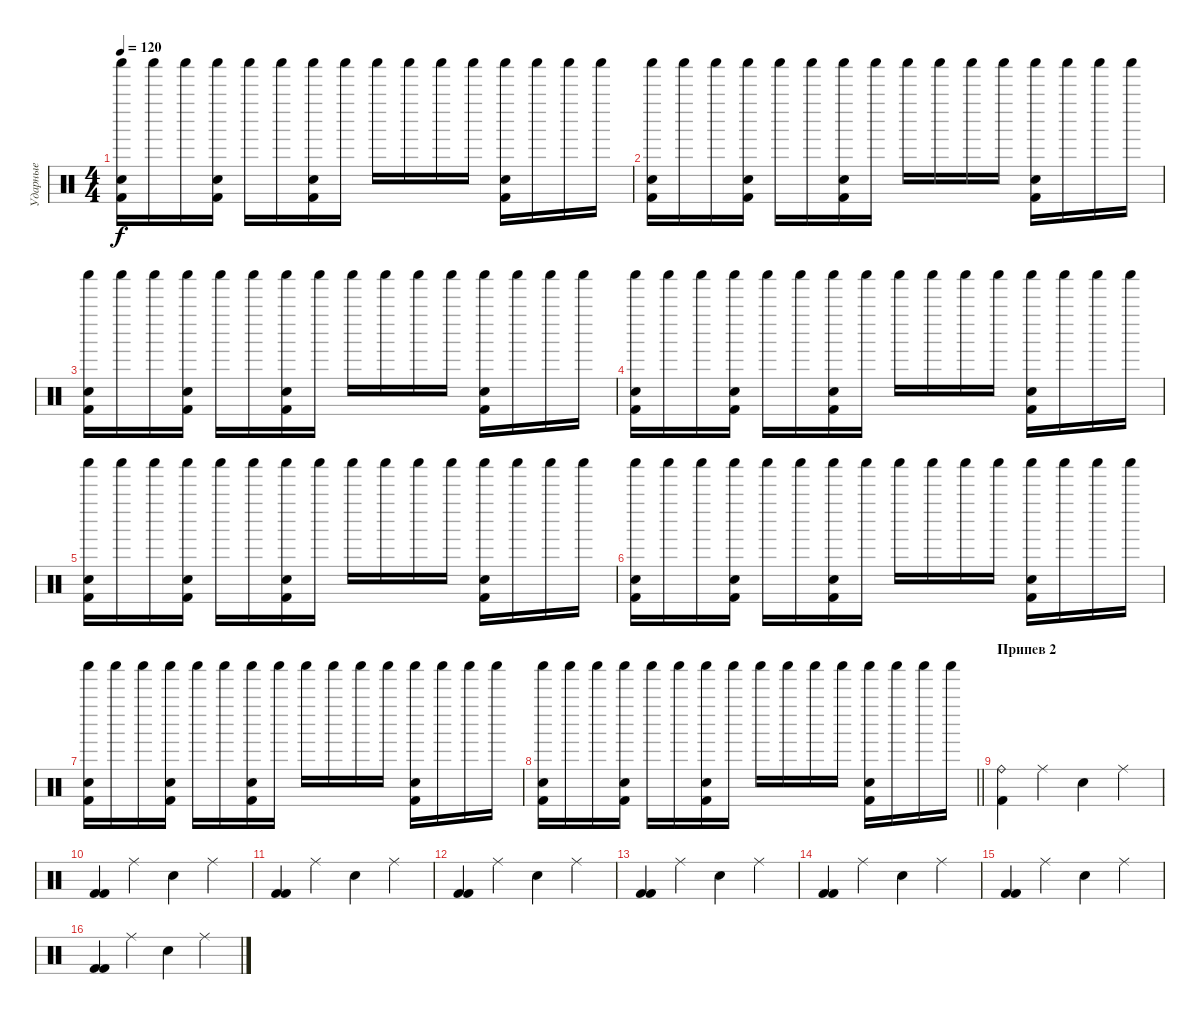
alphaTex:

\track ("Ударные" "Ударные") {instrument percussion}
\staff {score}
\articulation defaults
\ts (4 4)
\tempo 120
\clef neutral
\ks c
("Electric Snare (hit)" "Kick (hit) 2" "Shaker (hit)").16{dy f} "Shaker (hit)".16 "Shaker (hit)".16 ("Electric Snare (hit)" "Kick (hit) 2" "Shaker (hit)").16 "Shaker (hit)".16 "Shaker (hit)".16 ("Electric Snare (hit)" "Kick (hit) 2" "Shaker (hit)").16 "Shaker (hit)".16 "Shaker (hit)".16 "Shaker (hit)".16 "Shaker (hit)".16 "Shaker (hit)".16 ("Electric Snare (hit)" "Kick (hit) 2" "Shaker (hit)").16 "Shaker (hit)".16 "Shaker (hit)".16 "Shaker (hit)".16 |
("Electric Snare (hit)" "Kick (hit) 2" "Shaker (hit)").16 "Shaker (hit)".16 "Shaker (hit)".16 ("Electric Snare (hit)" "Kick (hit) 2" "Shaker (hit)").16 "Shaker (hit)".16 "Shaker (hit)".16 ("Electric Snare (hit)" "Kick (hit) 2" "Shaker (hit)").16 "Shaker (hit)".16 "Shaker (hit)".16 "Shaker (hit)".16 "Shaker (hit)".16 "Shaker (hit)".16 ("Electric Snare (hit)" "Kick (hit) 2" "Shaker (hit)").16 "Shaker (hit)".16 "Shaker (hit)".16 "Shaker (hit)".16 |
("Electric Snare (hit)" "Kick (hit) 2" "Shaker (hit)").16 "Shaker (hit)".16 "Shaker (hit)".16 ("Electric Snare (hit)" "Kick (hit) 2" "Shaker (hit)").16 "Shaker (hit)".16 "Shaker (hit)".16 ("Electric Snare (hit)" "Kick (hit) 2" "Shaker (hit)").16 "Shaker (hit)".16 "Shaker (hit)".16 "Shaker (hit)".16 "Shaker (hit)".16 "Shaker (hit)".16 ("Electric Snare (hit)" "Kick (hit) 2" "Shaker (hit)").16 "Shaker (hit)".16 "Shaker (hit)".16 "Shaker (hit)".16 |
("Electric Snare (hit)" "Kick (hit) 2" "Shaker (hit)").16 "Shaker (hit)".16 "Shaker (hit)".16 ("Electric Snare (hit)" "Kick (hit) 2" "Shaker (hit)").16 "Shaker (hit)".16 "Shaker (hit)".16 ("Electric Snare (hit)" "Kick (hit) 2" "Shaker (hit)").16 "Shaker (hit)".16 "Shaker (hit)".16 "Shaker (hit)".16 "Shaker (hit)".16 "Shaker (hit)".16 ("Electric Snare (hit)" "Kick (hit) 2" "Shaker (hit)").16 "Shaker (hit)".16 "Shaker (hit)".16 "Shaker (hit)".16 |
("Electric Snare (hit)" "Kick (hit) 2" "Shaker (hit)").16 "Shaker (hit)".16 "Shaker (hit)".16 ("Electric Snare (hit)" "Kick (hit) 2" "Shaker (hit)").16 "Shaker (hit)".16 "Shaker (hit)".16 ("Electric Snare (hit)" "Kick (hit) 2" "Shaker (hit)").16 "Shaker (hit)".16 "Shaker (hit)".16 "Shaker (hit)".16 "Shaker (hit)".16 "Shaker (hit)".16 ("Electric Snare (hit)" "Kick (hit) 2" "Shaker (hit)").16 "Shaker (hit)".16 "Shaker (hit)".16 "Shaker (hit)".16 |
("Electric Snare (hit)" "Kick (hit) 2" "Shaker (hit)").16 "Shaker (hit)".16 "Shaker (hit)".16 ("Electric Snare (hit)" "Kick (hit) 2" "Shaker (hit)").16 "Shaker (hit)".16 "Shaker (hit)".16 ("Electric Snare (hit)" "Kick (hit) 2" "Shaker (hit)").16 "Shaker (hit)".16 "Shaker (hit)".16 "Shaker (hit)".16 "Shaker (hit)".16 "Shaker (hit)".16 ("Electric Snare (hit)" "Kick (hit) 2" "Shaker (hit)").16 "Shaker (hit)".16 "Shaker (hit)".16 "Shaker (hit)".16 |
("Electric Snare (hit)" "Kick (hit) 2" "Shaker (hit)").16 "Shaker (hit)".16 "Shaker (hit)".16 ("Electric Snare (hit)" "Kick (hit) 2" "Shaker (hit)").16 "Shaker (hit)".16 "Shaker (hit)".16 ("Electric Snare (hit)" "Kick (hit) 2" "Shaker (hit)").16 "Shaker (hit)".16 "Shaker (hit)".16 "Shaker (hit)".16 "Shaker (hit)".16 "Shaker (hit)".16 ("Electric Snare (hit)" "Kick (hit) 2" "Shaker (hit)").16 "Shaker (hit)".16 "Shaker (hit)".16 "Shaker (hit)".16 |
\barLineRight lightlight
("Electric Snare (hit)" "Kick (hit) 2" "Shaker (hit)").16 "Shaker (hit)".16 "Shaker (hit)".16 ("Electric Snare (hit)" "Kick (hit) 2" "Shaker (hit)").16 "Shaker (hit)".16 "Shaker (hit)".16 ("Electric Snare (hit)" "Kick (hit) 2" "Shaker (hit)").16 "Shaker (hit)".16 "Shaker (hit)".16 "Shaker (hit)".16 "Shaker (hit)".16 "Shaker (hit)".16 ("Electric Snare (hit)" "Kick (hit) 2" "Shaker (hit)").16 "Shaker (hit)".16 "Shaker (hit)".16 "Shaker (hit)".16 |
\section ("" "Припев 2")
("Ride (bell)" "Kick (hit) 2").4 "Ride (middle)".4 "Snare (hit) 2".4 "Ride (middle)".4 |
("Kick (hit) 2" "Kick (hit) 2").4 "Ride (middle)".4 "Snare (hit) 2".4 "Ride (middle)".4 |
("Kick (hit) 2" "Kick (hit) 2").4 "Ride (middle)".4 "Snare (hit) 2".4 "Ride (middle)".4 |
("Kick (hit) 2" "Kick (hit) 2").4 "Ride (middle)".4 "Snare (hit) 2".4 "Ride (middle)".4 |
("Kick (hit) 2" "Kick (hit) 2").4 "Ride (middle)".4 "Snare (hit) 2".4 "Ride (middle)".4 |
("Kick (hit) 2" "Kick (hit) 2").4 "Ride (middle)".4 "Snare (hit) 2".4 "Ride (middle)".4 |
("Kick (hit) 2" "Kick (hit) 2").4 "Ride (middle)".4 "Snare (hit) 2".4 "Ride (middle)".4 |
("Kick (hit) 2" "Kick (hit) 2").4 "Ride (middle)".4 "Snare (hit) 2".4 "Ride (middle)".4
